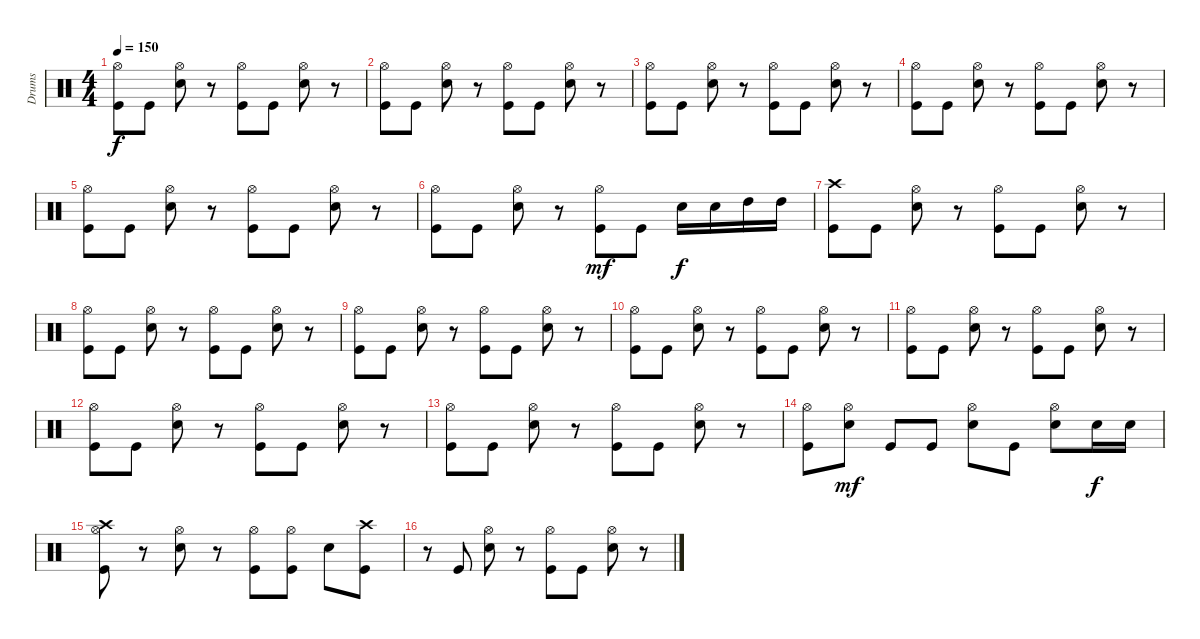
\track ("Drums" "Drums") {instrument percussion}
\staff {score}
\articulation defaults
\ts (4 4)
\tempo 150
\clef neutral
\ks c
("Hi-Hat (open)" "Kick (hit)").8{dy f} "Kick (hit)".8 ("Hi-Hat (open)" "Electric Snare (hit)").8 r.8 ("Hi-Hat (open)" "Kick (hit)").8 "Kick (hit)".8 ("Hi-Hat (open)" "Electric Snare (hit)").8 r.8 |
("Hi-Hat (open)" "Kick (hit)").8 "Kick (hit)".8 ("Hi-Hat (open)" "Electric Snare (hit)").8 r.8 ("Hi-Hat (open)" "Kick (hit)").8 "Kick (hit)".8 ("Hi-Hat (open)" "Electric Snare (hit)").8 r.8 |
("Hi-Hat (open)" "Kick (hit)").8 "Kick (hit)".8 ("Hi-Hat (open)" "Electric Snare (hit)").8 r.8 ("Hi-Hat (open)" "Kick (hit)").8 "Kick (hit)".8 ("Hi-Hat (open)" "Electric Snare (hit)").8 r.8 |
("Hi-Hat (open)" "Kick (hit)").8 "Kick (hit)".8 ("Hi-Hat (open)" "Electric Snare (hit)").8 r.8 ("Hi-Hat (open)" "Kick (hit)").8 "Kick (hit)".8 ("Hi-Hat (open)" "Electric Snare (hit)").8 r.8 |
("Hi-Hat (open)" "Kick (hit)").8 "Kick (hit)".8 ("Hi-Hat (open)" "Electric Snare (hit)").8 r.8 ("Hi-Hat (open)" "Kick (hit)").8 "Kick (hit)".8 ("Hi-Hat (open)" "Electric Snare (hit)").8 r.8 |
("Hi-Hat (open)" "Kick (hit)").8 "Kick (hit)".8 ("Hi-Hat (open)" "Electric Snare (hit)").8 r.8 ("Hi-Hat (open)" "Kick (hit)").8{dy mf} "Kick (hit)".8 "Electric Snare (hit)".16{dy f} "Electric Snare (hit)".16 "High Tom (hit)".16 "High Tom (hit)".16 |
("Crash high (hit)" "Kick (hit)").8 "Kick (hit)".8 ("Hi-Hat (open)" "Electric Snare (hit)").8 r.8 ("Hi-Hat (open)" "Kick (hit)").8 "Kick (hit)".8 ("Hi-Hat (open)" "Electric Snare (hit)").8 r.8 |
("Hi-Hat (open)" "Kick (hit)").8 "Kick (hit)".8 ("Hi-Hat (open)" "Electric Snare (hit)").8 r.8 ("Hi-Hat (open)" "Kick (hit)").8 "Kick (hit)".8 ("Hi-Hat (open)" "Electric Snare (hit)").8 r.8 |
("Hi-Hat (open)" "Kick (hit)").8 "Kick (hit)".8 ("Hi-Hat (open)" "Electric Snare (hit)").8 r.8 ("Hi-Hat (open)" "Kick (hit)").8 "Kick (hit)".8 ("Hi-Hat (open)" "Electric Snare (hit)").8 r.8 |
("Hi-Hat (open)" "Kick (hit)").8 "Kick (hit)".8 ("Hi-Hat (open)" "Electric Snare (hit)").8 r.8 ("Hi-Hat (open)" "Kick (hit)").8 "Kick (hit)".8 ("Hi-Hat (open)" "Electric Snare (hit)").8 r.8 |
("Hi-Hat (open)" "Kick (hit)").8 "Kick (hit)".8 ("Hi-Hat (open)" "Electric Snare (hit)").8 r.8 ("Hi-Hat (open)" "Kick (hit)").8 "Kick (hit)".8 ("Hi-Hat (open)" "Electric Snare (hit)").8 r.8 |
("Hi-Hat (open)" "Kick (hit)").8 "Kick (hit)".8 ("Hi-Hat (open)" "Electric Snare (hit)").8 r.8 ("Hi-Hat (open)" "Kick (hit)").8 "Kick (hit)".8 ("Hi-Hat (open)" "Electric Snare (hit)").8 r.8 |
("Hi-Hat (open)" "Kick (hit)").8 "Kick (hit)".8 ("Hi-Hat (open)" "Electric Snare (hit)").8 r.8 ("Hi-Hat (open)" "Kick (hit)").8 "Kick (hit)".8 ("Hi-Hat (open)" "Electric Snare (hit)").8 r.8 |
("Hi-Hat (open)" "Kick (hit)").8 ("Hi-Hat (open)" "Electric Snare (hit)").8{dy mf} "Kick (hit)".8 "Kick (hit)".8 ("Hi-Hat (open)" "Electric Snare (hit)").8 "Kick (hit)".8 ("Hi-Hat (open)" "Electric Snare (hit)").8 "Electric Snare (hit)".16{dy f} "Electric Snare (hit)".16 |
("Crash high (hit)" "Hi-Hat (open)" "Kick (hit)").8 r.8 ("Hi-Hat (open)" "Electric Snare (hit)").8 r.8 ("Hi-Hat (open)" "Kick (hit)").8 ("Hi-Hat (open)" "Kick (hit)").8 "Electric Snare (hit)".8 ("Crash high (hit)" "Kick (hit)").8 |
r.8 "Kick (hit)".8 ("Hi-Hat (open)" "Electric Snare (hit)").8 r.8 ("Hi-Hat (open)" "Kick (hit)").8 "Kick (hit)".8 ("Hi-Hat (open)" "Electric Snare (hit)").8 r.8
